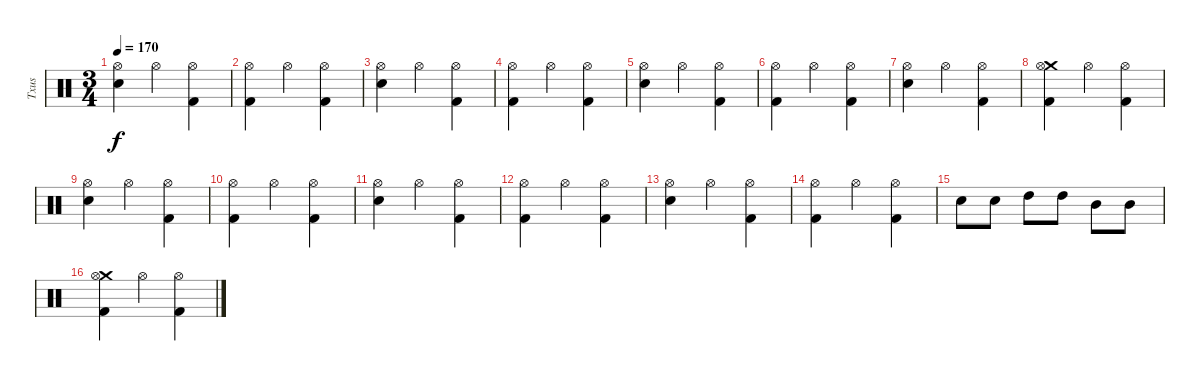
\track ("Txus" "Txus") {instrument percussion}
\staff {score}
\articulation defaults
\ts (3 4)
\tempo 170
\clef neutral
\ks c
("Hi-Hat (open)" "Electric Snare (hit)").4{dy f} "Hi-Hat (open)".4 ("Hi-Hat (open)" "Kick (hit) 2").4 |
("Hi-Hat (open)" "Kick (hit) 2").4 "Hi-Hat (open)".4 ("Hi-Hat (open)" "Kick (hit) 2").4 |
("Hi-Hat (open)" "Electric Snare (hit)").4 "Hi-Hat (open)".4 ("Hi-Hat (open)" "Kick (hit) 2").4 |
("Hi-Hat (open)" "Kick (hit) 2").4 "Hi-Hat (open)".4 ("Hi-Hat (open)" "Kick (hit) 2").4 |
("Hi-Hat (open)" "Electric Snare (hit)").4 "Hi-Hat (open)".4 ("Hi-Hat (open)" "Kick (hit) 2").4 |
("Hi-Hat (open)" "Kick (hit) 2").4 "Hi-Hat (open)".4 ("Hi-Hat (open)" "Kick (hit) 2").4 |
("Hi-Hat (open)" "Electric Snare (hit)").4 "Hi-Hat (open)".4 ("Hi-Hat (open)" "Kick (hit) 2").4 |
("Crash medium (hit)" "Hi-Hat (open)" "Kick (hit) 2").4 "Hi-Hat (open)".4 ("Hi-Hat (open)" "Kick (hit) 2").4 |
("Hi-Hat (open)" "Electric Snare (hit)").4 "Hi-Hat (open)".4 ("Hi-Hat (open)" "Kick (hit) 2").4 |
("Hi-Hat (open)" "Kick (hit) 2").4 "Hi-Hat (open)".4 ("Hi-Hat (open)" "Kick (hit) 2").4 |
("Hi-Hat (open)" "Electric Snare (hit)").4 "Hi-Hat (open)".4 ("Hi-Hat (open)" "Kick (hit) 2").4 |
("Hi-Hat (open)" "Kick (hit) 2").4 "Hi-Hat (open)".4 ("Hi-Hat (open)" "Kick (hit) 2").4 |
("Hi-Hat (open)" "Electric Snare (hit)").4 "Hi-Hat (open)".4 ("Hi-Hat (open)" "Kick (hit) 2").4 |
("Hi-Hat (open)" "Kick (hit) 2").4 "Hi-Hat (open)".4 ("Hi-Hat (open)" "Kick (hit) 2").4 |
"Electric Snare (hit)".8 "Electric Snare (hit)".8 "High Tom (hit)".8 "High Tom (hit)".8 "Mid Tom (hit)".8 "Mid Tom (hit)".8 |
("Crash medium (hit)" "Hi-Hat (open)" "Kick (hit) 2").4 "Hi-Hat (open)".4 ("Hi-Hat (open)" "Kick (hit) 2").4
